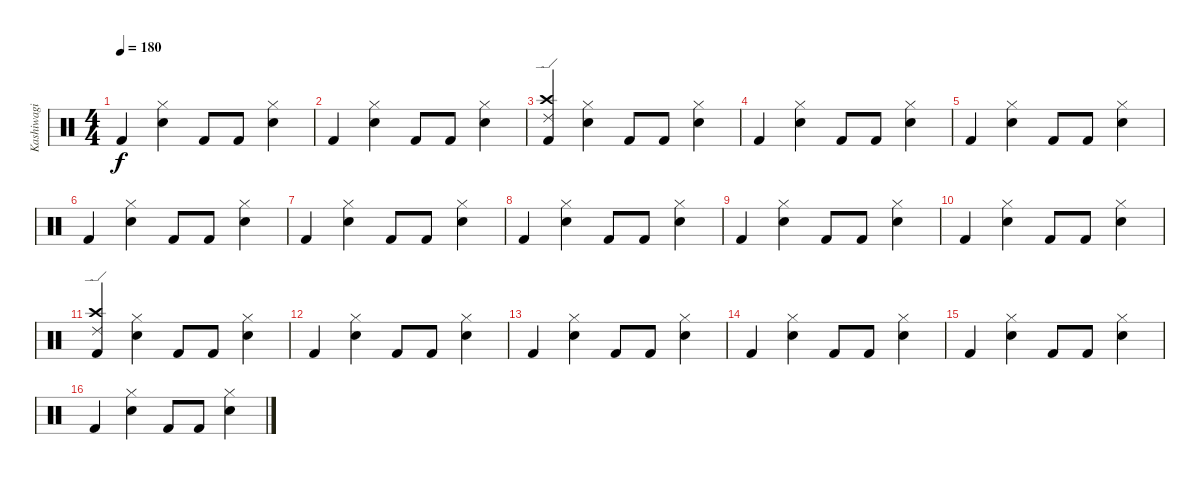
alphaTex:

\track ("Kashiwagi Yuki" "Kashiwagi ") {instrument percussion}
\staff {score}
\articulation defaults
\ts (4 4)
\tempo 180
\clef neutral
\ks c "Kick (hit) 2".4{dy f}
("Hi-Hat (closed)" "Electric Snare (hit)").4 "Kick (hit) 2".8 "Kick (hit) 2".8 ("Hi-Hat (closed)" "Electric Snare (hit)").4 |
"Kick (hit) 2".4 ("Hi-Hat (closed)" "Electric Snare (hit)").4 "Kick (hit) 2".8 "Kick (hit) 2".8 ("Hi-Hat (closed)" "Electric Snare (hit)").4 |
("Crash high (hit)" "Ride (edge) 2" "Kick (hit) 2").4 ("Hi-Hat (closed)" "Electric Snare (hit)").4 "Kick (hit) 2".8 "Kick (hit) 2".8 ("Hi-Hat (closed)" "Electric Snare (hit)").4 |
"Kick (hit) 2".4 ("Hi-Hat (closed)" "Electric Snare (hit)").4 "Kick (hit) 2".8 "Kick (hit) 2".8 ("Hi-Hat (closed)" "Electric Snare (hit)").4 |
"Kick (hit) 2".4 ("Hi-Hat (closed)" "Electric Snare (hit)").4 "Kick (hit) 2".8 "Kick (hit) 2".8 ("Hi-Hat (closed)" "Electric Snare (hit)").4 |
"Kick (hit) 2".4 ("Hi-Hat (closed)" "Electric Snare (hit)").4 "Kick (hit) 2".8 "Kick (hit) 2".8 ("Hi-Hat (closed)" "Electric Snare (hit)").4 |
"Kick (hit) 2".4 ("Hi-Hat (closed)" "Electric Snare (hit)").4 "Kick (hit) 2".8 "Kick (hit) 2".8 ("Hi-Hat (closed)" "Electric Snare (hit)").4 |
"Kick (hit) 2".4 ("Hi-Hat (closed)" "Electric Snare (hit)").4 "Kick (hit) 2".8 "Kick (hit) 2".8 ("Hi-Hat (closed)" "Electric Snare (hit)").4 |
"Kick (hit) 2".4 ("Hi-Hat (closed)" "Electric Snare (hit)").4 "Kick (hit) 2".8 "Kick (hit) 2".8 ("Hi-Hat (closed)" "Electric Snare (hit)").4 |
"Kick (hit) 2".4 ("Hi-Hat (closed)" "Electric Snare (hit)").4 "Kick (hit) 2".8 "Kick (hit) 2".8 ("Hi-Hat (closed)" "Electric Snare (hit)").4 |
("Ride (edge) 2" "Crash high (hit)" "Kick (hit) 2").4 ("Hi-Hat (closed)" "Electric Snare (hit)").4 "Kick (hit) 2".8 "Kick (hit) 2".8 ("Hi-Hat (closed)" "Electric Snare (hit)").4 |
"Kick (hit) 2".4 ("Hi-Hat (closed)" "Electric Snare (hit)").4 "Kick (hit) 2".8 "Kick (hit) 2".8 ("Hi-Hat (closed)" "Electric Snare (hit)").4 |
"Kick (hit) 2".4 ("Hi-Hat (closed)" "Electric Snare (hit)").4 "Kick (hit) 2".8 "Kick (hit) 2".8 ("Hi-Hat (closed)" "Electric Snare (hit)").4 |
"Kick (hit) 2".4 ("Hi-Hat (closed)" "Electric Snare (hit)").4 "Kick (hit) 2".8 "Kick (hit) 2".8 ("Hi-Hat (closed)" "Electric Snare (hit)").4 |
"Kick (hit) 2".4 ("Hi-Hat (closed)" "Electric Snare (hit)").4 "Kick (hit) 2".8 "Kick (hit) 2".8 ("Hi-Hat (closed)" "Electric Snare (hit)").4 |
"Kick (hit) 2".4 ("Hi-Hat (closed)" "Electric Snare (hit)").4 "Kick (hit) 2".8 "Kick (hit) 2".8 ("Hi-Hat (closed)" "Electric Snare (hit)").4
